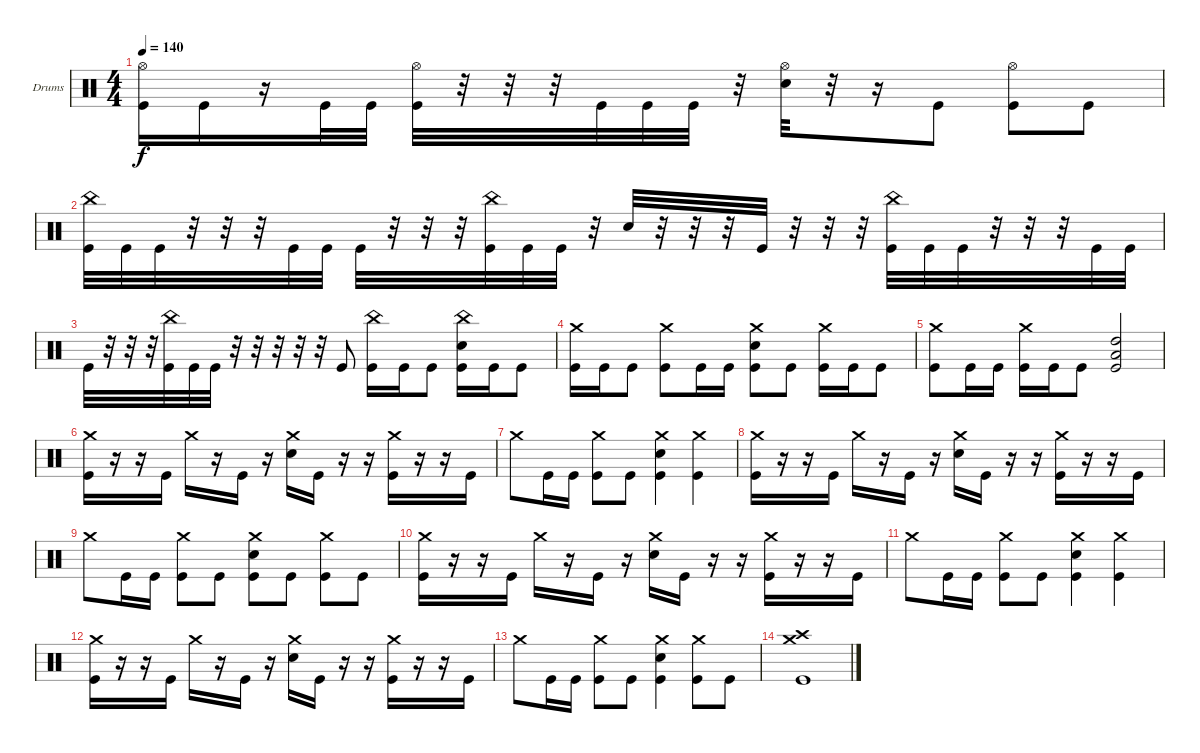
\bracketExtendMode groupsimilarinstruments
\firstSystemTrackNameOrientation horizontal
\otherSystemsTrackNameOrientation horizontal
\track ("Drumkit" "Drums") {instrument percussion}
\staff {score}
\articulation defaults
\ts (4 4)
\tempo 140
\clef neutral
\ks c
("Kick (hit)" "Hi-Hat (open)").16{dy f} "Kick (hit)".16 r.16 "Kick (hit)".32 "Kick (hit)".32 ("Kick (hit)" "Hi-Hat (open)").32 r.32 r.32 r.32 "Kick (hit)".32 "Kick (hit)".32 "Kick (hit)".32 r.32 ("Hi-Hat (open)" "Snare (hit) 2").32 r.32 r.16 "Kick (hit)".8 ("Kick (hit)" "Hi-Hat (open)").8 "Kick (hit)".8 |
("China (hit)" "Kick (hit)").32 "Kick (hit)".32 "Kick (hit)".32 r.32 r.32 r.32 "Kick (hit)".32 "Kick (hit)".32 "Kick (hit)".32 r.32 r.32 r.32 ("Kick (hit)" "China (hit)").32 "Kick (hit)".32 "Kick (hit)".32 r.32 "Snare (hit) 2".32 r.32 r.32 r.32 "Kick (hit)".32 r.32 r.32 r.32 ("Kick (hit)" "China (hit)").32 "Kick (hit)".32 "Kick (hit)".32 r.32 r.32 r.32 "Kick (hit)".32 "Kick (hit)".32 |
"Kick (hit)".32 r.32 r.32 r.32 ("Kick (hit)" "China (hit)").32 "Kick (hit)".32 "Kick (hit)".32 r.32 r.32 r.32 r.32 r.32 "Kick (hit)".8 ("Kick (hit)" "China (hit)").16 "Kick (hit)".16 "Kick (hit)".8 ("Kick (hit)" "China (hit)" "Snare (hit) 2").16 "Kick (hit)".16 "Kick (hit)".8 |
("Kick (hit)" "Crash medium (hit)").16 "Kick (hit)".16 "Kick (hit)".8 ("Kick (hit)" "Crash medium (hit)").8 "Kick (hit)".16 "Kick (hit)".16 ("Kick (hit)" "Crash medium (hit)" "Snare (hit) 2").8 "Kick (hit)".8 ("Kick (hit)" "Crash medium (hit)").16 "Kick (hit)".16 "Kick (hit)".8 |
("Kick (hit)" "Crash medium (hit)").8 "Kick (hit)".16 "Kick (hit)".16 ("Kick (hit)" "Crash medium (hit)").16 "Kick (hit)".16 "Kick (hit)".8 ("Kick (hit)" "Low Tom (hit)" "High Tom (hit)").2 |
("Kick (hit)" "Crash medium (hit)").16 r.16 r.16 "Kick (hit)".16 "Crash medium (hit)".16 r.16 "Kick (hit)".16 r.16 ("Crash medium (hit)" "Snare (hit) 2").16 "Kick (hit)".16 r.16 r.16 ("Kick (hit)" "Crash medium (hit)").16 r.16 r.16 "Kick (hit)".16 |
"Crash medium (hit)".8 "Kick (hit)".16 "Kick (hit)".16 ("Kick (hit)" "Crash medium (hit)").8 "Kick (hit)".8 ("Kick (hit)" "Crash medium (hit)" "Snare (hit) 2").4 ("Kick (hit)" "Crash medium (hit)").4 |
("Kick (hit)" "Crash medium (hit)").16 r.16 r.16 "Kick (hit)".16 "Crash medium (hit)".16 r.16 "Kick (hit)".16 r.16 ("Crash medium (hit)" "Snare (hit) 2").16 "Kick (hit)".16 r.16 r.16 ("Kick (hit)" "Crash medium (hit)").16 r.16 r.16 "Kick (hit)".16 |
"Crash medium (hit)".8 "Kick (hit)".16 "Kick (hit)".16 ("Kick (hit)" "Crash medium (hit)").8 "Kick (hit)".8 ("Kick (hit)" "Crash medium (hit)" "Snare (hit) 2").8 "Kick (hit)".8 ("Kick (hit)" "Crash medium (hit)").8 "Kick (hit)".8 |
("Kick (hit)" "Crash medium (hit)").16 r.16 r.16 "Kick (hit)".16 "Crash medium (hit)".16 r.16 "Kick (hit)".16 r.16 ("Crash medium (hit)" "Snare (hit) 2").16 "Kick (hit)".16 r.16 r.16 ("Kick (hit)" "Crash medium (hit)").16 r.16 r.16 "Kick (hit)".16 |
"Crash medium (hit)".8 "Kick (hit)".16 "Kick (hit)".16 ("Kick (hit)" "Crash medium (hit)").8 "Kick (hit)".8 ("Kick (hit)" "Crash medium (hit)" "Snare (hit) 2").4 ("Kick (hit)" "Crash medium (hit)").4 |
("Kick (hit)" "Crash medium (hit)").16 r.16 r.16 "Kick (hit)".16 "Crash medium (hit)".16 r.16 "Kick (hit)".16 r.16 ("Crash medium (hit)" "Snare (hit) 2").16 "Kick (hit)".16 r.16 r.16 ("Kick (hit)" "Crash medium (hit)").16 r.16 r.16 "Kick (hit)".16 |
"Crash medium (hit)".8 "Kick (hit)".16 "Kick (hit)".16 ("Kick (hit)" "Crash medium (hit)").8 "Kick (hit)".8 ("Kick (hit)" "Crash medium (hit)" "Snare (hit) 2").4 ("Kick (hit)" "Crash medium (hit)").8 "Kick (hit)".8 |
("Kick (hit)" "Crash high (hit)" "Crash medium (hit)").1
